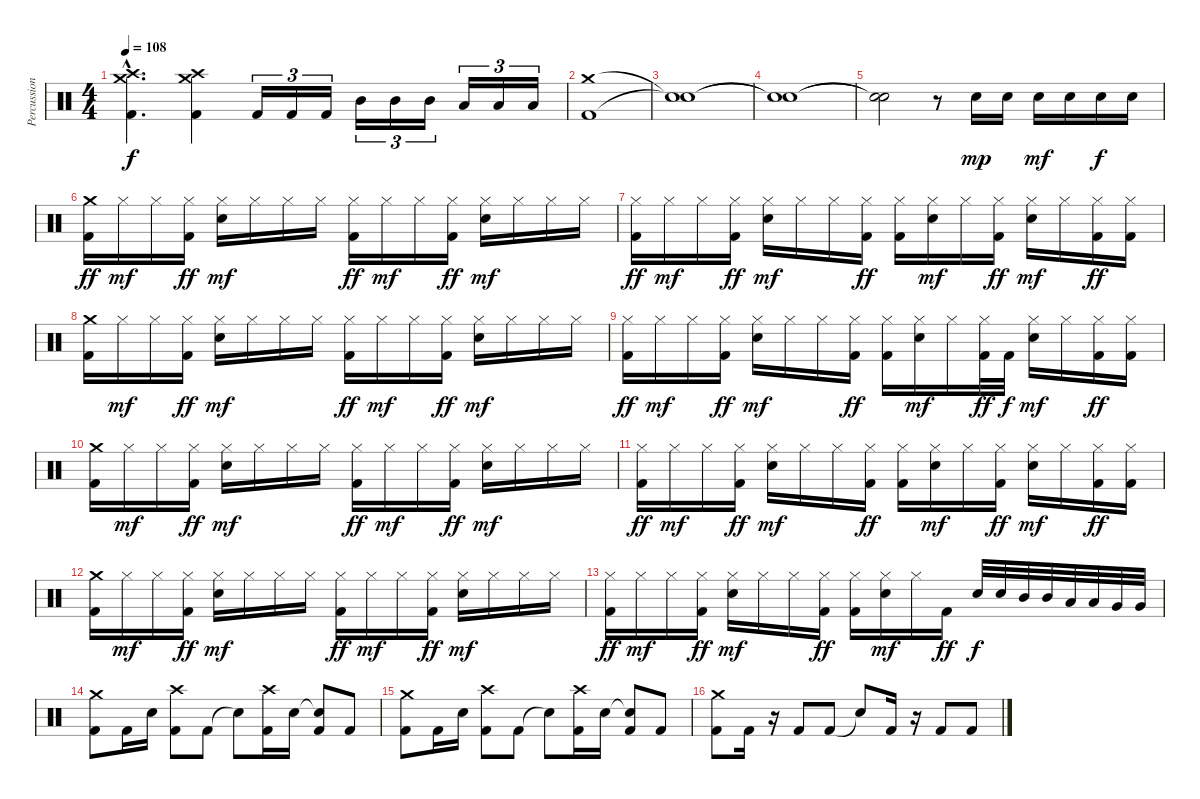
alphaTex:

\track ("Percussions" "Percussion") {instrument percussion}
\staff {score}
\articulation defaults
\ts (4 4)
\tempo 108
\clef neutral
\ks c
("Crash medium (hit)"{hac} "Crash high (hit)"{hac} "Kick (hit) 2"{hac}).4{d dy f} ("Crash medium (hit)" "Crash high (hit)" "Kick (hit) 2").4 "Kick (hit) 2".16{tu (3 2)} "Kick (hit) 2".16{tu (3 2)} "Kick (hit) 2".16{tu (3 2)} "Mid Tom (hit)".16{tu (3 2)} "Mid Tom (hit)".16{tu (3 2)} "Mid Tom (hit)".16{tu (3 2)} "Low Tom (hit)".16{tu (3 2)} "Low Tom (hit)".16{tu (3 2)} "Low Tom (hit)".16{tu (3 2)} |
("Crash medium (hit)" "Kick (hit) 2").1 |
("Snare (hit)"{t} "Snare (hit)"{t}).1 |
("Snare (hit)"{t} "Snare (hit)"{t}).1 |
("Snare (hit)"{t} "Snare (hit)"{t}).2 r.8 "Electric Snare (hit)".16{dy mp} "Electric Snare (hit)".16 "Electric Snare (hit)".16{dy mf} "Electric Snare (hit)".16 "Electric Snare (hit)".16{dy f} "Electric Snare (hit)".16 |
("Crash medium (hit)" "Kick (hit) 2").16{dy ff} "Hi-Hat (closed)".16{dy mf} "Hi-Hat (closed)".16 ("Hi-Hat (closed)" "Kick (hit) 2").16{dy ff} ("Hi-Hat (closed)" "Electric Snare (hit)").16{dy mf} "Hi-Hat (closed)".16 "Hi-Hat (closed)".16 "Hi-Hat (closed)".16 ("Hi-Hat (closed)" "Kick (hit) 2").16{dy ff} "Hi-Hat (closed)".16{dy mf} "Hi-Hat (closed)".16 ("Hi-Hat (closed)" "Kick (hit) 2").16{dy ff} ("Hi-Hat (closed)" "Electric Snare (hit)").16{dy mf} "Hi-Hat (closed)".16 "Hi-Hat (closed)".16 "Hi-Hat (closed)".16 |
("Hi-Hat (closed)" "Kick (hit) 2").16{dy ff} "Hi-Hat (closed)".16{dy mf} "Hi-Hat (closed)".16 ("Hi-Hat (closed)" "Kick (hit) 2").16{dy ff} ("Hi-Hat (closed)" "Electric Snare (hit)").16{dy mf} "Hi-Hat (closed)".16 "Hi-Hat (closed)".16 ("Hi-Hat (closed)" "Kick (hit) 2").16{dy ff} ("Hi-Hat (closed)" "Kick (hit) 2").16 ("Hi-Hat (closed)" "Electric Snare (hit)").16{dy mf} "Hi-Hat (closed)".16 ("Hi-Hat (closed)" "Kick (hit) 2").16{dy ff} ("Hi-Hat (closed)" "Electric Snare (hit)").16{dy mf} "Hi-Hat (closed)".16 ("Hi-Hat (closed)" "Kick (hit) 2").16{dy ff} ("Hi-Hat (closed)" "Kick (hit) 2").16 |
("Crash medium (hit)" "Kick (hit) 2").16 "Hi-Hat (closed)".16{dy mf} "Hi-Hat (closed)".16 ("Hi-Hat (closed)" "Kick (hit) 2").16{dy ff} ("Hi-Hat (closed)" "Electric Snare (hit)").16{dy mf} "Hi-Hat (closed)".16 "Hi-Hat (closed)".16 "Hi-Hat (closed)".16 ("Hi-Hat (closed)" "Kick (hit) 2").16{dy ff} "Hi-Hat (closed)".16{dy mf} "Hi-Hat (closed)".16 ("Hi-Hat (closed)" "Kick (hit) 2").16{dy ff} ("Hi-Hat (closed)" "Electric Snare (hit)").16{dy mf} "Hi-Hat (closed)".16 "Hi-Hat (closed)".16 "Hi-Hat (closed)".16 |
("Hi-Hat (closed)" "Kick (hit) 2").16{dy ff} "Hi-Hat (closed)".16{dy mf} "Hi-Hat (closed)".16 ("Hi-Hat (closed)" "Kick (hit) 2").16{dy ff} ("Hi-Hat (closed)" "Electric Snare (hit)").16{dy mf} "Hi-Hat (closed)".16 "Hi-Hat (closed)".16 ("Hi-Hat (closed)" "Kick (hit) 2").16{dy ff} ("Hi-Hat (closed)" "Kick (hit) 2").16 ("Hi-Hat (closed)" "Electric Snare (hit)").16{dy mf} "Hi-Hat (closed)".16 ("Hi-Hat (closed)" "Kick (hit) 2").32{dy ff} "Kick (hit) 2".32{dy f} ("Hi-Hat (closed)" "Electric Snare (hit)").16{dy mf} "Hi-Hat (closed)".16 ("Hi-Hat (closed)" "Kick (hit) 2").16{dy ff} ("Hi-Hat (closed)" "Kick (hit) 2").16 |
("Crash medium (hit)" "Kick (hit) 2").16 "Hi-Hat (closed)".16{dy mf} "Hi-Hat (closed)".16 ("Hi-Hat (closed)" "Kick (hit) 2").16{dy ff} ("Hi-Hat (closed)" "Electric Snare (hit)").16{dy mf} "Hi-Hat (closed)".16 "Hi-Hat (closed)".16 "Hi-Hat (closed)".16 ("Hi-Hat (closed)" "Kick (hit) 2").16{dy ff} "Hi-Hat (closed)".16{dy mf} "Hi-Hat (closed)".16 ("Hi-Hat (closed)" "Kick (hit) 2").16{dy ff} ("Hi-Hat (closed)" "Electric Snare (hit)").16{dy mf} "Hi-Hat (closed)".16 "Hi-Hat (closed)".16 "Hi-Hat (closed)".16 |
("Hi-Hat (closed)" "Kick (hit) 2").16{dy ff} "Hi-Hat (closed)".16{dy mf} "Hi-Hat (closed)".16 ("Hi-Hat (closed)" "Kick (hit) 2").16{dy ff} ("Hi-Hat (closed)" "Electric Snare (hit)").16{dy mf} "Hi-Hat (closed)".16 "Hi-Hat (closed)".16 ("Hi-Hat (closed)" "Kick (hit) 2").16{dy ff} ("Hi-Hat (closed)" "Kick (hit) 2").16 ("Hi-Hat (closed)" "Electric Snare (hit)").16{dy mf} "Hi-Hat (closed)".16 ("Hi-Hat (closed)" "Kick (hit) 2").16{dy ff} ("Hi-Hat (closed)" "Electric Snare (hit)").16{dy mf} "Hi-Hat (closed)".16 ("Hi-Hat (closed)" "Kick (hit) 2").16{dy ff} ("Hi-Hat (closed)" "Kick (hit) 2").16 |
("Crash medium (hit)" "Kick (hit) 2").16 "Hi-Hat (closed)".16{dy mf} "Hi-Hat (closed)".16 ("Hi-Hat (closed)" "Kick (hit) 2").16{dy ff} ("Hi-Hat (closed)" "Electric Snare (hit)").16{dy mf} "Hi-Hat (closed)".16 "Hi-Hat (closed)".16 "Hi-Hat (closed)".16 ("Hi-Hat (closed)" "Kick (hit) 2").16{dy ff} "Hi-Hat (closed)".16{dy mf} "Hi-Hat (closed)".16 ("Hi-Hat (closed)" "Kick (hit) 2").16{dy ff} ("Hi-Hat (closed)" "Electric Snare (hit)").16{dy mf} "Hi-Hat (closed)".16 "Hi-Hat (closed)".16 "Hi-Hat (closed)".16 |
("Hi-Hat (closed)" "Kick (hit) 2").16{dy ff} "Hi-Hat (closed)".16{dy mf} "Hi-Hat (closed)".16 ("Hi-Hat (closed)" "Kick (hit) 2").16{dy ff} ("Hi-Hat (closed)" "Electric Snare (hit)").16{dy mf} "Hi-Hat (closed)".16 "Hi-Hat (closed)".16 ("Hi-Hat (closed)" "Kick (hit) 2").16{dy ff} ("Hi-Hat (closed)" "Kick (hit) 2").16 ("Hi-Hat (closed)" "Electric Snare (hit)").16{dy mf} "Hi-Hat (closed)".16 "Kick (hit) 2".16{dy ff} "Electric Snare (hit)".32{dy f} "Electric Snare (hit)".32 "Mid Tom (hit)".32 "Mid Tom (hit)".32 "Low Tom (hit)".32 "Low Tom (hit)".32 "Very Low Tom (hit)".32 "Very Low Tom (hit)".32 |
("Crash medium (hit)" "Kick (hit) 2").8 "Kick (hit) 2".16 "Electric Snare (hit)".16 ("Crash high (hit)" "Kick (hit) 2").8 "Kick (hit) 2".8 "Snare (hit)"{t}.8 ("Crash high (hit)" "Kick (hit) 2").16 "Electric Snare (hit)".16 ("Snare (hit)"{t} "Kick (hit) 2").8 "Kick (hit) 2".8 |
("Crash medium (hit)" "Kick (hit) 2").8 "Kick (hit) 2".16 "Electric Snare (hit)".16 ("Crash high (hit)" "Kick (hit) 2").8 "Kick (hit) 2".8 "Snare (hit)"{t}.8 ("Crash high (hit)" "Kick (hit) 2").16 "Electric Snare (hit)".16 ("Snare (hit)"{t} "Kick (hit) 2").8 "Kick (hit) 2".8 |
("Crash medium (hit)" "Kick (hit) 2").8 "Kick (hit) 2".16 r.16 "Kick (hit) 2".8 "Kick (hit) 2".8 "Snare (hit)"{t}.8 "Kick (hit) 2".16 r.16 "Kick (hit) 2".8 "Kick (hit) 2".8
